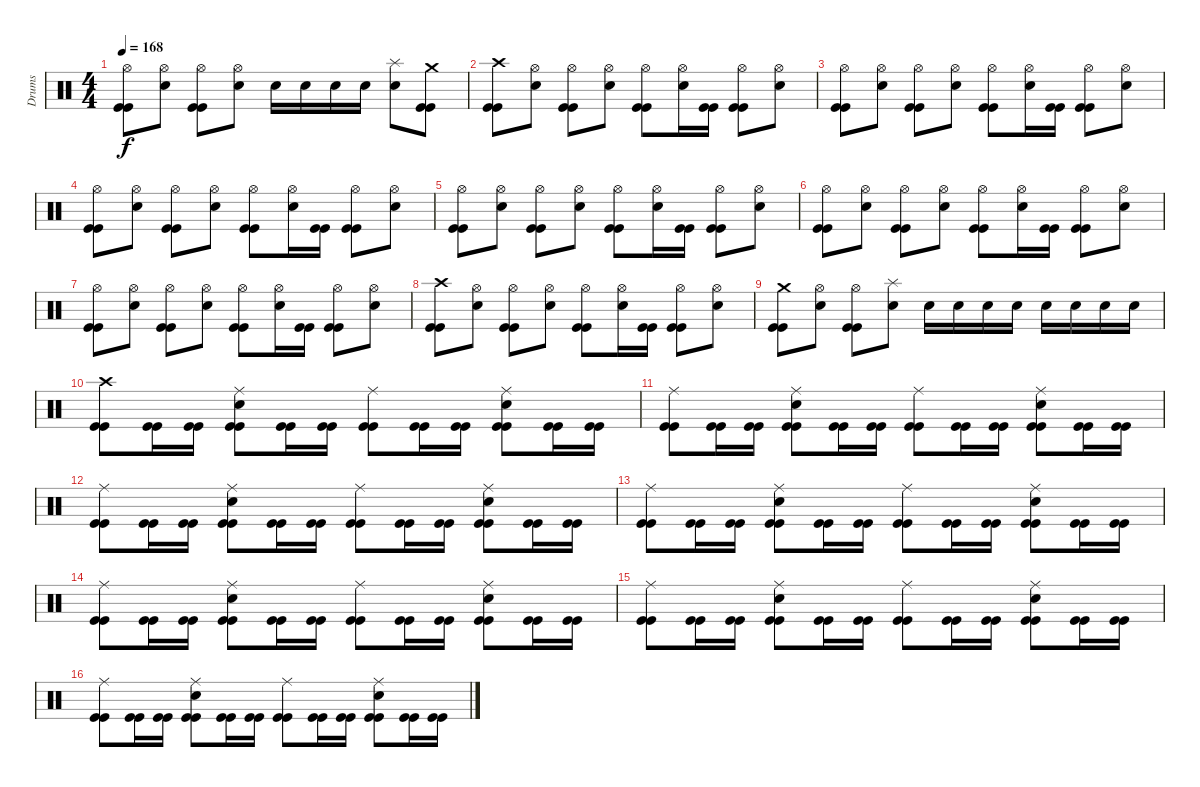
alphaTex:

\track ("Drums" "Drums") {instrument percussion}
\staff {score}
\articulation defaults
\ts (4 4)
\tempo 168
\clef neutral
\ks c
("Hi-Hat (open)" "Kick (hit)" "Kick (hit)").8{dy f} ("Hi-Hat (open)" "Electric Snare (hit)").8 ("Hi-Hat (open)" "Kick (hit)" "Kick (hit)").8 ("Hi-Hat (open)" "Electric Snare (hit)").8 "Electric Snare (hit)".16 "Electric Snare (hit)".16 "Electric Snare (hit)".16 "Electric Snare (hit)".16 ("Splash (hit)" "Electric Snare (hit)").8 ("Crash medium (hit)" "Kick (hit)" "Kick (hit)").8 |
("Crash high (hit)" "Kick (hit)" "Kick (hit)").8 ("Hi-Hat (open)" "Electric Snare (hit)").8 ("Hi-Hat (open)" "Kick (hit)" "Kick (hit)").8 ("Hi-Hat (open)" "Electric Snare (hit)").8 ("Hi-Hat (open)" "Kick (hit)" "Kick (hit)").8 ("Hi-Hat (open)" "Electric Snare (hit)").16 ("Kick (hit)" "Kick (hit)").16 ("Hi-Hat (open)" "Kick (hit)" "Kick (hit)").8 ("Hi-Hat (open)" "Electric Snare (hit)").8 |
("Hi-Hat (open)" "Kick (hit)" "Kick (hit)").8 ("Hi-Hat (open)" "Electric Snare (hit)").8 ("Hi-Hat (open)" "Kick (hit)" "Kick (hit)").8 ("Hi-Hat (open)" "Electric Snare (hit)").8 ("Hi-Hat (open)" "Kick (hit)" "Kick (hit)").8 ("Hi-Hat (open)" "Electric Snare (hit)").16 ("Kick (hit)" "Kick (hit)").16 ("Hi-Hat (open)" "Kick (hit)" "Kick (hit)").8 ("Hi-Hat (open)" "Electric Snare (hit)").8 |
("Hi-Hat (open)" "Kick (hit)" "Kick (hit)").8 ("Hi-Hat (open)" "Electric Snare (hit)").8 ("Hi-Hat (open)" "Kick (hit)" "Kick (hit)").8 ("Hi-Hat (open)" "Electric Snare (hit)").8 ("Hi-Hat (open)" "Kick (hit)" "Kick (hit)").8 ("Hi-Hat (open)" "Electric Snare (hit)").16 ("Kick (hit)" "Kick (hit)").16 ("Hi-Hat (open)" "Kick (hit)" "Kick (hit)").8 ("Hi-Hat (open)" "Electric Snare (hit)").8 |
("Hi-Hat (open)" "Kick (hit)" "Kick (hit)").8 ("Hi-Hat (open)" "Electric Snare (hit)").8 ("Hi-Hat (open)" "Kick (hit)" "Kick (hit)").8 ("Hi-Hat (open)" "Electric Snare (hit)").8 ("Hi-Hat (open)" "Kick (hit)" "Kick (hit)").8 ("Hi-Hat (open)" "Electric Snare (hit)").16 ("Kick (hit)" "Kick (hit)").16 ("Hi-Hat (open)" "Kick (hit)" "Kick (hit)").8 ("Hi-Hat (open)" "Electric Snare (hit)").8 |
("Hi-Hat (open)" "Kick (hit)" "Kick (hit)").8 ("Hi-Hat (open)" "Electric Snare (hit)").8 ("Hi-Hat (open)" "Kick (hit)" "Kick (hit)").8 ("Hi-Hat (open)" "Electric Snare (hit)").8 ("Hi-Hat (open)" "Kick (hit)" "Kick (hit)").8 ("Hi-Hat (open)" "Electric Snare (hit)").16 ("Kick (hit)" "Kick (hit)").16 ("Hi-Hat (open)" "Kick (hit)" "Kick (hit)").8 ("Hi-Hat (open)" "Electric Snare (hit)").8 |
("Hi-Hat (open)" "Kick (hit)" "Kick (hit)").8 ("Hi-Hat (open)" "Electric Snare (hit)").8 ("Hi-Hat (open)" "Kick (hit)" "Kick (hit)").8 ("Hi-Hat (open)" "Electric Snare (hit)").8 ("Hi-Hat (open)" "Kick (hit)" "Kick (hit)").8 ("Hi-Hat (open)" "Electric Snare (hit)").16 ("Kick (hit)" "Kick (hit)").16 ("Hi-Hat (open)" "Kick (hit)" "Kick (hit)").8 ("Hi-Hat (open)" "Electric Snare (hit)").8 |
("Crash high (hit)" "Kick (hit)" "Kick (hit)").8 ("Hi-Hat (open)" "Electric Snare (hit)").8 ("Hi-Hat (open)" "Kick (hit)" "Kick (hit)").8 ("Hi-Hat (open)" "Electric Snare (hit)").8 ("Hi-Hat (open)" "Kick (hit)" "Kick (hit)").8 ("Hi-Hat (open)" "Electric Snare (hit)").16 ("Kick (hit)" "Kick (hit)").16 ("Hi-Hat (open)" "Kick (hit)" "Kick (hit)").8 ("Hi-Hat (open)" "Electric Snare (hit)").8 |
("Crash medium (hit)" "Kick (hit)" "Kick (hit)").8 ("Hi-Hat (open)" "Electric Snare (hit)").8 ("Hi-Hat (open)" "Kick (hit)" "Kick (hit)").8 ("Splash (hit)" "Electric Snare (hit)").8 "Electric Snare (hit)".16 "Electric Snare (hit)".16 "Electric Snare (hit)".16 "Electric Snare (hit)".16 "Electric Snare (hit)".16 "Electric Snare (hit)".16 "Electric Snare (hit)".16 "Electric Snare (hit)".16 |
("Crash high (hit)" "Kick (hit)" "Kick (hit)").8 ("Kick (hit)" "Kick (hit)").16 ("Kick (hit)" "Kick (hit)").16 ("Ride (middle)" "Electric Snare (hit)" "Kick (hit)" "Kick (hit)").8 ("Kick (hit)" "Kick (hit)").16 ("Kick (hit)" "Kick (hit)").16 ("Ride (middle)" "Kick (hit)" "Kick (hit)").8 ("Kick (hit)" "Kick (hit)").16 ("Kick (hit)" "Kick (hit)").16 ("Ride (middle)" "Electric Snare (hit)" "Kick (hit)" "Kick (hit)").8 ("Kick (hit)" "Kick (hit)").16 ("Kick (hit)" "Kick (hit)").16 |
("Ride (middle)" "Kick (hit)" "Kick (hit)").8 ("Kick (hit)" "Kick (hit)").16 ("Kick (hit)" "Kick (hit)").16 ("Ride (middle)" "Electric Snare (hit)" "Kick (hit)" "Kick (hit)").8 ("Kick (hit)" "Kick (hit)").16 ("Kick (hit)" "Kick (hit)").16 ("Ride (middle)" "Kick (hit)" "Kick (hit)").8 ("Kick (hit)" "Kick (hit)").16 ("Kick (hit)" "Kick (hit)").16 ("Ride (middle)" "Electric Snare (hit)" "Kick (hit)" "Kick (hit)").8 ("Kick (hit)" "Kick (hit)").16 ("Kick (hit)" "Kick (hit)").16 |
("Ride (middle)" "Kick (hit)" "Kick (hit)").8 ("Kick (hit)" "Kick (hit)").16 ("Kick (hit)" "Kick (hit)").16 ("Ride (middle)" "Electric Snare (hit)" "Kick (hit)" "Kick (hit)").8 ("Kick (hit)" "Kick (hit)").16 ("Kick (hit)" "Kick (hit)").16 ("Ride (middle)" "Kick (hit)" "Kick (hit)").8 ("Kick (hit)" "Kick (hit)").16 ("Kick (hit)" "Kick (hit)").16 ("Ride (middle)" "Electric Snare (hit)" "Kick (hit)" "Kick (hit)").8 ("Kick (hit)" "Kick (hit)").16 ("Kick (hit)" "Kick (hit)").16 |
("Ride (middle)" "Kick (hit)" "Kick (hit)").8 ("Kick (hit)" "Kick (hit)").16 ("Kick (hit)" "Kick (hit)").16 ("Ride (middle)" "Electric Snare (hit)" "Kick (hit)" "Kick (hit)").8 ("Kick (hit)" "Kick (hit)").16 ("Kick (hit)" "Kick (hit)").16 ("Ride (middle)" "Kick (hit)" "Kick (hit)").8 ("Kick (hit)" "Kick (hit)").16 ("Kick (hit)" "Kick (hit)").16 ("Ride (middle)" "Electric Snare (hit)" "Kick (hit)" "Kick (hit)").8 ("Kick (hit)" "Kick (hit)").16 ("Kick (hit)" "Kick (hit)").16 |
("Ride (middle)" "Kick (hit)" "Kick (hit)").8 ("Kick (hit)" "Kick (hit)").16 ("Kick (hit)" "Kick (hit)").16 ("Ride (middle)" "Electric Snare (hit)" "Kick (hit)" "Kick (hit)").8 ("Kick (hit)" "Kick (hit)").16 ("Kick (hit)" "Kick (hit)").16 ("Ride (middle)" "Kick (hit)" "Kick (hit)").8 ("Kick (hit)" "Kick (hit)").16 ("Kick (hit)" "Kick (hit)").16 ("Ride (middle)" "Electric Snare (hit)" "Kick (hit)" "Kick (hit)").8 ("Kick (hit)" "Kick (hit)").16 ("Kick (hit)" "Kick (hit)").16 |
("Ride (middle)" "Kick (hit)" "Kick (hit)").8 ("Kick (hit)" "Kick (hit)").16 ("Kick (hit)" "Kick (hit)").16 ("Ride (middle)" "Electric Snare (hit)" "Kick (hit)" "Kick (hit)").8 ("Kick (hit)" "Kick (hit)").16 ("Kick (hit)" "Kick (hit)").16 ("Ride (middle)" "Kick (hit)" "Kick (hit)").8 ("Kick (hit)" "Kick (hit)").16 ("Kick (hit)" "Kick (hit)").16 ("Ride (middle)" "Electric Snare (hit)" "Kick (hit)" "Kick (hit)").8 ("Kick (hit)" "Kick (hit)").16 ("Kick (hit)" "Kick (hit)").16 |
("Ride (middle)" "Kick (hit)" "Kick (hit)").8 ("Kick (hit)" "Kick (hit)").16 ("Kick (hit)" "Kick (hit)").16 ("Ride (middle)" "Electric Snare (hit)" "Kick (hit)" "Kick (hit)").8 ("Kick (hit)" "Kick (hit)").16 ("Kick (hit)" "Kick (hit)").16 ("Ride (middle)" "Kick (hit)" "Kick (hit)").8 ("Kick (hit)" "Kick (hit)").16 ("Kick (hit)" "Kick (hit)").16 ("Ride (middle)" "Electric Snare (hit)" "Kick (hit)" "Kick (hit)").8 ("Kick (hit)" "Kick (hit)").16 ("Kick (hit)" "Kick (hit)").16
